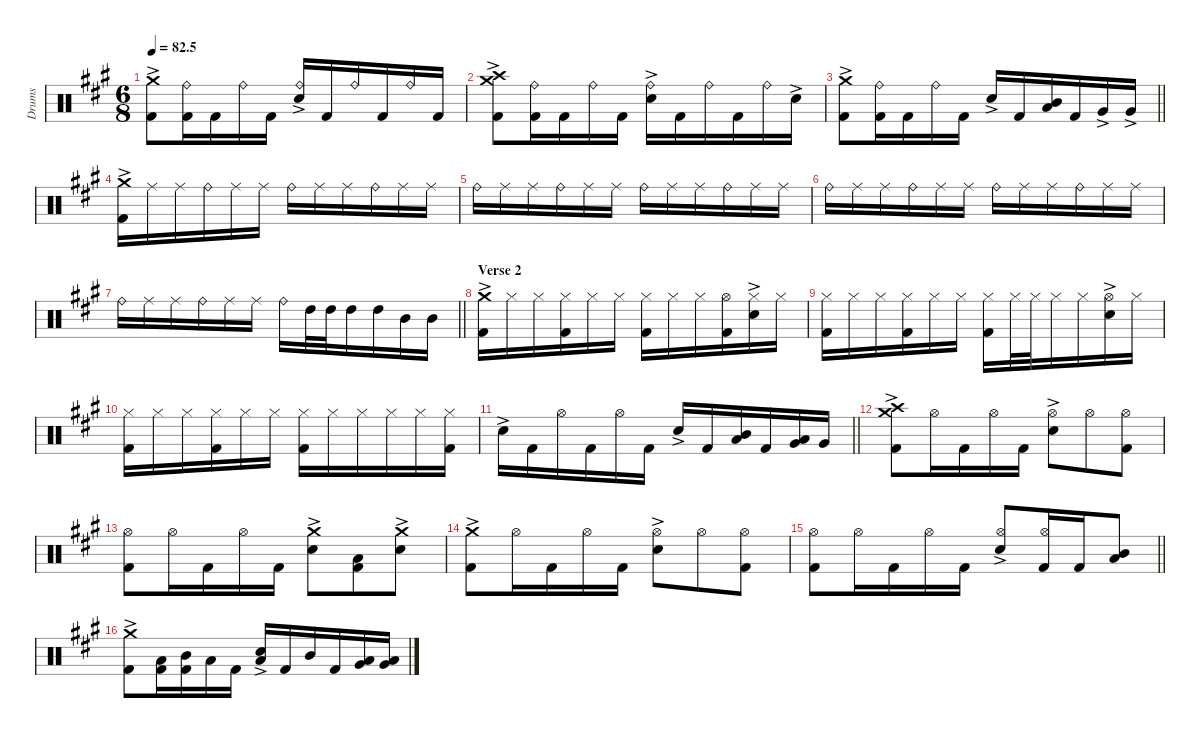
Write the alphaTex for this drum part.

\defaultSystemsLayout 4
\hideDynamics
\bracketExtendMode nobrackets
\otherSystemsTrackNameOrientation horizontal
\track ("Drumkit-show" "Drums") {defaultSystemsLayout 4 mute instrument percussion}
\staff {score}
\articulation defaults
\ts (6 8)
\tempo
82.5
\accidentals auto
\clef neutral
\ottava regular
\simile none
\ks a
("Crash medium (hit)"{ac acc forcenatural} "Kick (hit) 2"{acc forcenatural}).8{dy f beam Down} ("Ride (bell)"{acc forcenatural} "Kick (hit) 2"{acc forcenatural}).16{beam Down} "Kick (hit) 2"{acc forcenatural}.16{beam Down} "Ride (bell)"{acc forcenatural}.16{beam Down} "Kick (hit) 2"{acc forcenatural}.16{beam Down} ("Ride (bell)"{acc forcenatural} "Snare (hit) 2"{ac acc forcenatural}).16{beam Up} "Kick (hit) 2"{acc forcenatural}.16{beam Up} "Ride (bell)"{acc forcenatural}.16{beam Up} "Kick (hit) 2"{acc forcenatural}.16{beam Up} "Ride (bell)"{acc forcenatural}.16{beam Up} "Kick (hit) 2"{acc forcenatural}.16{beam Up} |
("Crash medium (hit)"{ac acc forcenatural} "Crash high (hit)"{acc forcenatural} "Kick (hit) 2"{acc forcenatural}).8{beam Down} ("Ride (bell)"{acc forcenatural} "Kick (hit) 2"{acc forcenatural}).16{beam Down} "Kick (hit) 2"{acc forcenatural}.16{beam Down} "Ride (bell)"{acc forcenatural}.16{beam Down} "Kick (hit) 2"{acc forcenatural}.16{beam Down} ("Ride (bell)"{acc forcenatural} "Snare (hit) 2"{ac acc forcenatural}).16{beam Down} "Kick (hit) 2"{acc forcenatural}.16{beam Down} "Ride (bell)"{acc forcenatural}.16{beam Down} "Kick (hit) 2"{acc forcenatural}.16{beam Down} "Ride (bell)"{acc forcenatural}.16{beam Down} "Snare (hit) 2"{ac acc forcenatural}.16{beam Down} |
\barLineRight lightlight
("Crash medium (hit)"{ac acc forcenatural} "Kick (hit) 2"{acc forcenatural}).8{beam Down} ("Ride (bell)"{acc forcenatural} "Kick (hit) 2"{acc forcenatural}).16{beam Down} "Kick (hit) 2"{acc forcenatural}.16{beam Down} "Ride (bell)"{acc forcenatural}.16{beam Down} "Kick (hit) 2"{acc forcenatural}.16{beam Down} "Snare (hit) 2"{ac acc forcenatural}.16{beam Up} "Kick (hit) 2"{acc forcenatural}.16{beam Up} ("Mid Tom (hit)"{acc forcenatural} "Low Tom (hit)"{acc forcenatural}).16{beam Up} "Kick (hit) 2"{acc forcenatural}.16{beam Up} "Very Low Tom (hit)"{ac acc forcenatural}.16{beam Up} "Very Low Tom (hit)"{ac acc forcenatural}.16{beam Up} |
("Crash medium (hit)"{ac acc forcenatural} "Kick (hit) 2"{acc forcenatural}).16{beam Down} "Ride (middle)"{acc forcenatural}.16{beam Down} "Ride (middle)"{acc forcenatural}.16{beam Down} "Ride (bell)"{acc forcenatural}.16{beam Down} "Ride (middle)"{acc forcenatural}.16{beam Down} "Ride (middle)"{acc forcenatural}.16{beam Down} "Ride (bell)"{acc forcenatural}.16{beam Down} "Ride (middle)"{acc forcenatural}.16{beam Down} "Ride (middle)"{acc forcenatural}.16{beam Down} "Ride (bell)"{acc forcenatural}.16{beam Down} "Ride (middle)"{acc forcenatural}.16{beam Down} "Ride (middle)"{acc forcenatural}.16{beam Down} |
"Ride (bell)"{acc forcenatural}.16{beam Down} "Ride (middle)"{acc forcenatural}.16{beam Down} "Ride (middle)"{acc forcenatural}.16{beam Down} "Ride (bell)"{acc forcenatural}.16{beam Down} "Ride (middle)"{acc forcenatural}.16{beam Down} "Ride (middle)"{acc forcenatural}.16{beam Down} "Ride (bell)"{acc forcenatural}.16{beam Down} "Ride (middle)"{acc forcenatural}.16{beam Down} "Ride (middle)"{acc forcenatural}.16{beam Down} "Ride (bell)"{acc forcenatural}.16{beam Down} "Ride (middle)"{acc forcenatural}.16{beam Down} "Ride (middle)"{acc forcenatural}.16{beam Down} |
"Ride (bell)"{acc forcenatural}.16{beam Down} "Ride (middle)"{acc forcenatural}.16{beam Down} "Ride (middle)"{acc forcenatural}.16{beam Down} "Ride (bell)"{acc forcenatural}.16{beam Down} "Ride (middle)"{acc forcenatural}.16{beam Down} "Ride (middle)"{acc forcenatural}.16{beam Down} "Ride (bell)"{acc forcenatural}.16{beam Down} "Ride (middle)"{acc forcenatural}.16{beam Down} "Ride (middle)"{acc forcenatural}.16{beam Down} "Ride (bell)"{acc forcenatural}.16{beam Down} "Ride (middle)"{acc forcenatural}.16{beam Down} "Ride (middle)"{acc forcenatural}.16{beam Down} |
\barLineRight lightlight "Ride (bell)"{acc forcenatural}.16{beam Down} "Ride (middle)"{acc forcenatural}.16{beam Down} "Ride (middle)"{acc forcenatural}.16{beam Down} "Ride (bell)"{acc forcenatural}.16{beam Down} "Ride (middle)"{acc forcenatural}.16{beam Down} "Ride (middle)"{acc forcenatural}.16{beam Down} "Ride (bell)"{acc forcenatural}.16{beam Down} "High Tom (hit)"{acc forcenatural}.32{beam Down} "High Tom (hit)"{acc forcenatural}.32{beam Down} "High Tom (hit)"{acc forcenatural}.16{beam Down} "High Tom (hit)"{acc forcenatural}.16{beam Down} "Mid Tom (hit)"{acc forcenatural}.16{beam Down} "Mid Tom (hit)"{acc forcenatural}.16{beam Down}
|
\section ("" "Verse 2")
("Crash medium (hit)"{ac acc forcenatural} "Kick (hit) 2"{acc forcenatural}).16{beam Down} "Hi-Hat (closed)"{acc forcenatural}.16{beam Down} "Hi-Hat (closed)"{acc forcenatural}.16{beam Down} ("Hi-Hat (closed)"{acc forcenatural} "Kick (hit) 2"{acc forcenatural}).16{beam Down} "Hi-Hat (closed)"{acc forcenatural}.16{beam Down} "Hi-Hat (closed)"{acc forcenatural}.16{beam Down} ("Hi-Hat (closed)"{acc forcenatural} "Kick (hit) 2"{acc forcenatural}).16{beam Down} "Hi-Hat (closed)"{acc forcenatural}.16{beam Down} "Hi-Hat (closed)"{acc forcenatural}.16{beam Down} ("Kick (hit) 2"{acc forcenatural} "Hi-Hat (open)"{acc forcenatural}).16{beam Down} ("Hi-Hat (closed)"{acc forcenatural} "Snare (hit) 2"{ac acc forcenatural}).16{beam Down} "Hi-Hat (closed)"{acc forcenatural}.16{beam Down} |
("Hi-Hat (closed)"{acc forcenatural} "Kick (hit) 2"{acc forcenatural}).16{beam Down} "Hi-Hat (closed)"{acc forcenatural}.16{beam Down} "Hi-Hat (closed)"{acc forcenatural}.16{beam Down} ("Hi-Hat (closed)"{acc forcenatural} "Kick (hit) 2"{acc forcenatural}).16{beam Down} "Hi-Hat (closed)"{acc forcenatural}.16{beam Down} "Hi-Hat (closed)"{acc forcenatural}.16{beam Down} ("Hi-Hat (closed)"{acc forcenatural} "Kick (hit) 2"{acc forcenatural}).16{beam Down} "Hi-Hat (closed)"{acc forcenatural}.32{beam Down} "Hi-Hat (closed)"{acc forcenatural}.32{beam Down} "Hi-Hat (closed)"{acc forcenatural}.16{beam Down} "Hi-Hat (closed)"{acc forcenatural}.16{beam Down} ("Hi-Hat (open)"{acc forcenatural} "Snare (hit) 2"{ac acc forcenatural}).16{beam Down} "Hi-Hat (closed)"{acc forcenatural}.16{beam Down} |
("Hi-Hat (closed)"{acc forcenatural} "Kick (hit) 2"{acc forcenatural}).16{beam Down} "Hi-Hat (closed)"{acc forcenatural}.16{beam Down} "Hi-Hat (closed)"{acc forcenatural}.16{beam Down} ("Hi-Hat (closed)"{acc forcenatural} "Kick (hit) 2"{acc forcenatural}).16{beam Down} "Hi-Hat (closed)"{acc forcenatural}.16{beam Down} "Hi-Hat (closed)"{acc forcenatural}.16{beam Down} ("Hi-Hat (closed)"{acc forcenatural} "Kick (hit) 2"{acc forcenatural}).16{beam Down} "Hi-Hat (closed)"{acc forcenatural}.16{beam Down} "Hi-Hat (closed)"{acc forcenatural}.16{beam Down} "Hi-Hat (closed)"{acc forcenatural}.16{beam Down} "Hi-Hat (closed)"{acc forcenatural}.16{beam Down} ("Hi-Hat (closed)"{acc forcenatural} "Kick (hit) 2"{acc forcenatural}).16{beam Down} |
\barLineRight lightlight "Snare (hit) 2"{ac acc forcenatural}.16{beam Down} "Kick (hit) 2"{acc forcenatural}.16{beam Down} "Hi-Hat (open)"{acc forcenatural}.16{beam Down} "Kick (hit) 2"{acc forcenatural}.16{beam Down} "Hi-Hat (open)"{acc forcenatural}.16{beam Down} "Kick (hit) 2"{acc forcenatural}.16{beam Down} "Snare (hit) 2"{ac acc forcenatural}.16{beam Up} "Kick (hit) 2"{acc forcenatural}.16{beam Up}
("Mid Tom (hit)"{acc forcenatural} "Low Tom (hit)"{acc forcenatural}).16{beam Up} "Kick (hit) 2"{acc forcenatural}.16{beam Up} ("Low Tom (hit)"{acc forcenatural} "Very Low Tom (hit)"{acc forcenatural}).16{beam Up} "Very Low Tom (hit)"{acc forcenatural}.16{beam Up} |
("Crash medium (hit)"{ac acc forcenatural} "Crash high (hit)"{acc forcenatural} "Kick (hit) 2"{acc forcenatural}).8{beam Down} "Hi-Hat (open)"{acc forcenatural}.16{beam Down} "Kick (hit) 2"{acc forcenatural}.16{beam Down} "Hi-Hat (open)"{acc forcenatural}.16{beam Down} "Kick (hit) 2"{acc forcenatural}.16{beam Down} ("Hi-Hat (open)"{acc forcenatural} "Snare (hit) 2"{ac acc forcenatural}).8{beam Down} "Hi-Hat (open)"{acc forcenatural}.8{beam Down} ("Hi-Hat (open)"{acc forcenatural} "Kick (hit) 2"{acc forcenatural}).8{beam Down} |
("Hi-Hat (open)"{acc forcenatural} "Kick (hit) 2"{acc forcenatural}).8{beam Down} "Hi-Hat (open)"{acc forcenatural}.16{beam Down} "Kick (hit) 2"{acc forcenatural}.16{beam Down} "Hi-Hat (open)"{acc forcenatural}.16{beam Down} "Kick (hit) 2"{acc forcenatural}.16{beam Down} ("Crash medium (hit)"{ac acc forcenatural} "Snare (hit) 2"{ac acc forcenatural}).8{beam Down} ("Low Tom (hit)"{acc forcenatural} "Kick (hit) 2"{acc forcenatural}).8{beam Down} ("Crash medium (hit)"{ac acc forcenatural} "Snare (hit) 2"{ac acc forcenatural}).8{beam Down} |
("Crash medium (hit)"{ac acc forcenatural} "Kick (hit) 2"{acc forcenatural}).8{beam Down} "Hi-Hat (open)"{acc forcenatural}.16{beam Down} "Kick (hit) 2"{acc forcenatural}.16{beam Down} "Hi-Hat (open)"{acc forcenatural}.16{beam Down} "Kick (hit) 2"{acc forcenatural}.16{beam Down} ("Hi-Hat (open)"{acc forcenatural} "Snare (hit) 2"{ac acc forcenatural}).8{beam Down} "Hi-Hat (open)"{acc forcenatural}.8{beam Down} ("Hi-Hat (open)"{acc forcenatural} "Kick (hit) 2"{acc forcenatural}).8{beam Down} |
\barLineRight lightlight
("Hi-Hat (open)"{acc forcenatural} "Kick (hit) 2"{acc forcenatural}).8{beam Down} "Hi-Hat (open)"{acc forcenatural}.16{beam Down} "Kick (hit) 2"{acc forcenatural}.16{beam Down} "Hi-Hat (open)"{acc forcenatural}.16{beam Down} "Kick (hit) 2"{acc forcenatural}.16{beam Down} ("Hi-Hat (open)"{acc forcenatural} "Snare (hit) 2"{ac acc forcenatural}).8{beam Up} ("Hi-Hat (open)"{acc forcenatural} "Kick (hit) 2"{acc forcenatural}).16{beam Up} "Kick (hit) 2"{acc forcenatural}.16{beam Up} ("Mid Tom (hit)"{acc forcenatural} "Low Tom (hit)"{acc forcenatural}).8{beam Up} |
("Crash medium (hit)"{ac acc forcenatural} "Kick (hit) 2"{acc forcenatural}).8{beam Down} ("Low Tom (hit)"{acc forcenatural} "Kick (hit) 2"{acc forcenatural}).16{beam Down} ("Mid Tom (hit)"{acc forcenatural} "Kick (hit) 2"{acc forcenatural}).16{beam Down} "Low Tom (hit)"{acc forcenatural}.16{beam Down} "Kick (hit) 2"{acc forcenatural}.16{beam Down} ("Snare (hit) 2"{ac acc forcenatural} "Low Tom (hit)"{acc forcenatural}).16{beam Up} "Kick (hit) 2"{acc forcenatural}.16{beam Up} "Mid Tom (hit)"{acc forcenatural}.16{beam Up} "Kick (hit) 2"{acc forcenatural}.16{beam Up} ("Low Tom (hit)"{acc forcenatural} "Very Low Tom (hit)"{acc forcenatural}).16{beam Up} ("Low Tom (hit)"{acc forcenatural} "Very Low Tom (hit)"{acc forcenatural}).16{beam Up}
